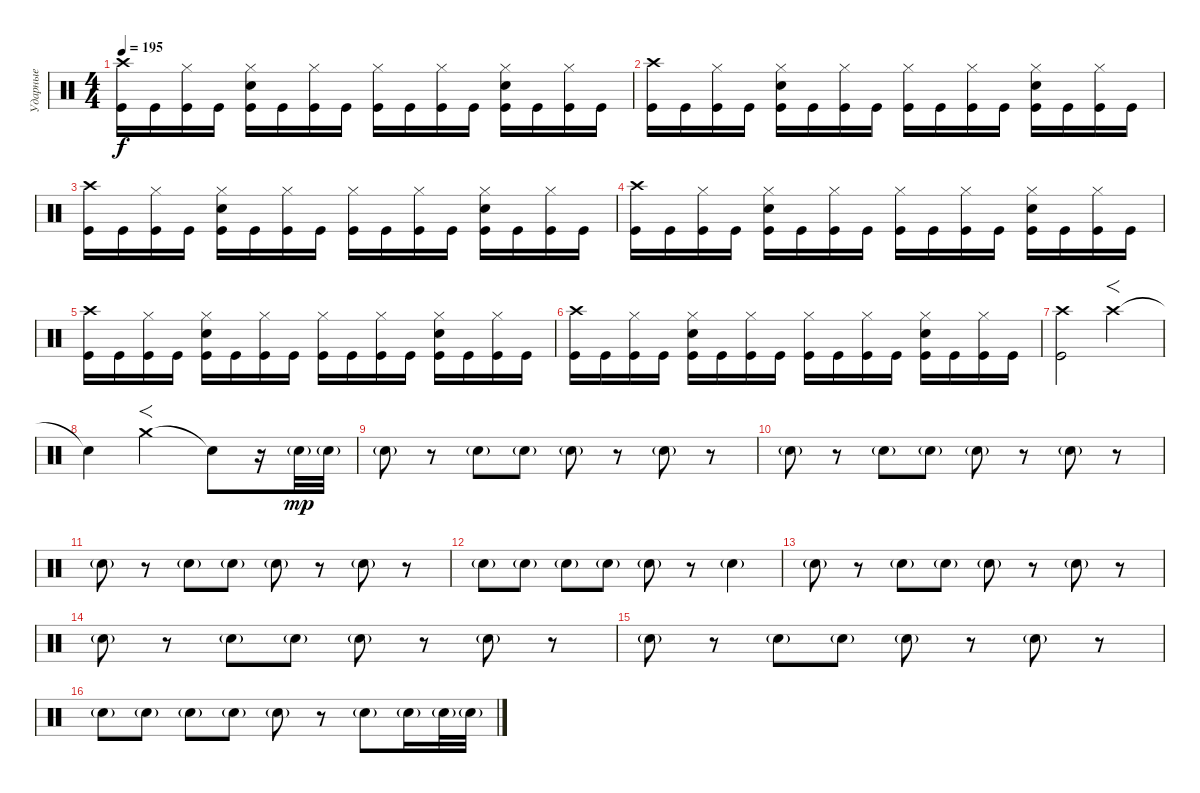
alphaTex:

\track ("Ударные" "Ударные") {instrument percussion}
\staff {score}
\articulation defaults
\ts (4 4)
\tempo 195
\clef neutral
\ks c
("Crash high (hit)" "Kick (hit)").16{dy f} "Kick (hit)".16 ("Hi-Hat (closed)" "Kick (hit)").16 "Kick (hit)".16 ("Hi-Hat (closed)" "Electric Snare (hit)" "Kick (hit)").16 "Kick (hit)".16 ("Hi-Hat (closed)" "Kick (hit)").16 "Kick (hit)".16 ("Hi-Hat (closed)" "Kick (hit)").16 "Kick (hit)".16 ("Hi-Hat (closed)" "Kick (hit)").16 "Kick (hit)".16 ("Hi-Hat (closed)" "Electric Snare (hit)" "Kick (hit)").16 "Kick (hit)".16 ("Hi-Hat (closed)" "Kick (hit)").16 "Kick (hit)".16 |
("Crash high (hit)" "Kick (hit)").16 "Kick (hit)".16 ("Hi-Hat (closed)" "Kick (hit)").16 "Kick (hit)".16 ("Hi-Hat (closed)" "Electric Snare (hit)" "Kick (hit)").16 "Kick (hit)".16 ("Hi-Hat (closed)" "Kick (hit)").16 "Kick (hit)".16 ("Hi-Hat (closed)" "Kick (hit)").16 "Kick (hit)".16 ("Hi-Hat (closed)" "Kick (hit)").16 "Kick (hit)".16 ("Hi-Hat (closed)" "Electric Snare (hit)" "Kick (hit)").16 "Kick (hit)".16 ("Hi-Hat (closed)" "Kick (hit)").16 "Kick (hit)".16 |
("Crash high (hit)" "Kick (hit)").16 "Kick (hit)".16 ("Hi-Hat (closed)" "Kick (hit)").16 "Kick (hit)".16 ("Hi-Hat (closed)" "Electric Snare (hit)" "Kick (hit)").16 "Kick (hit)".16 ("Hi-Hat (closed)" "Kick (hit)").16 "Kick (hit)".16 ("Hi-Hat (closed)" "Kick (hit)").16 "Kick (hit)".16 ("Hi-Hat (closed)" "Kick (hit)").16 "Kick (hit)".16 ("Hi-Hat (closed)" "Electric Snare (hit)" "Kick (hit)").16 "Kick (hit)".16 ("Hi-Hat (closed)" "Kick (hit)").16 "Kick (hit)".16 |
("Crash high (hit)" "Kick (hit)").16 "Kick (hit)".16 ("Hi-Hat (closed)" "Kick (hit)").16 "Kick (hit)".16 ("Hi-Hat (closed)" "Electric Snare (hit)" "Kick (hit)").16 "Kick (hit)".16 ("Hi-Hat (closed)" "Kick (hit)").16 "Kick (hit)".16 ("Hi-Hat (closed)" "Kick (hit)").16 "Kick (hit)".16 ("Hi-Hat (closed)" "Kick (hit)").16 "Kick (hit)".16 ("Hi-Hat (closed)" "Electric Snare (hit)" "Kick (hit)").16 "Kick (hit)".16 ("Hi-Hat (closed)" "Kick (hit)").16 "Kick (hit)".16 |
("Crash high (hit)" "Kick (hit)").16 "Kick (hit)".16 ("Hi-Hat (closed)" "Kick (hit)").16 "Kick (hit)".16 ("Hi-Hat (closed)" "Electric Snare (hit)" "Kick (hit)").16 "Kick (hit)".16 ("Hi-Hat (closed)" "Kick (hit)").16 "Kick (hit)".16 ("Hi-Hat (closed)" "Kick (hit)").16 "Kick (hit)".16 ("Hi-Hat (closed)" "Kick (hit)").16 "Kick (hit)".16 ("Hi-Hat (closed)" "Electric Snare (hit)" "Kick (hit)").16 "Kick (hit)".16 ("Hi-Hat (closed)" "Kick (hit)").16 "Kick (hit)".16 |
("Crash high (hit)" "Kick (hit)").16 "Kick (hit)".16 ("Hi-Hat (closed)" "Kick (hit)").16 "Kick (hit)".16 ("Hi-Hat (closed)" "Electric Snare (hit)" "Kick (hit)").16 "Kick (hit)".16 ("Hi-Hat (closed)" "Kick (hit)").16 "Kick (hit)".16 ("Hi-Hat (closed)" "Kick (hit)").16 "Kick (hit)".16 ("Hi-Hat (closed)" "Kick (hit)").16 "Kick (hit)".16 ("Hi-Hat (closed)" "Electric Snare (hit)" "Kick (hit)").16 "Kick (hit)".16 ("Hi-Hat (closed)" "Kick (hit)").16 "Kick (hit)".16 |
("Crash high (hit)" "Kick (hit)").2 "Crash high (hit)".2{f} |
"Snare (hit)"{t}.4 "Crash medium (hit)".2{f} "Snare (hit)"{t}.8 r.16 "Electric Snare (hit)"{g}.32{dy mp} "Electric Snare (hit)"{g}.32 |
"Electric Snare (hit)"{g}.8 r.8 "Electric Snare (hit)"{g}.8 "Electric Snare (hit)"{g}.8 "Electric Snare (hit)"{g}.8 r.8 "Electric Snare (hit)"{g}.8 r.8 |
"Electric Snare (hit)"{g}.8 r.8 "Electric Snare (hit)"{g}.8 "Electric Snare (hit)"{g}.8 "Electric Snare (hit)"{g}.8 r.8 "Electric Snare (hit)"{g}.8 r.8 |
"Electric Snare (hit)"{g}.8 r.8 "Electric Snare (hit)"{g}.8 "Electric Snare (hit)"{g}.8 "Electric Snare (hit)"{g}.8 r.8 "Electric Snare (hit)"{g}.8 r.8 |
"Electric Snare (hit)"{g}.8 "Electric Snare (hit)"{g}.8 "Electric Snare (hit)"{g}.8 "Electric Snare (hit)"{g}.8 "Electric Snare (hit)"{g}.8 r.8 "Electric Snare (hit)"{g}.4 |
"Electric Snare (hit)"{g}.8 r.8 "Electric Snare (hit)"{g}.8 "Electric Snare (hit)"{g}.8 "Electric Snare (hit)"{g}.8 r.8 "Electric Snare (hit)"{g}.8 r.8 |
"Electric Snare (hit)"{g}.8 r.8 "Electric Snare (hit)"{g}.8 "Electric Snare (hit)"{g}.8 "Electric Snare (hit)"{g}.8 r.8 "Electric Snare (hit)"{g}.8 r.8 |
"Electric Snare (hit)"{g}.8 r.8 "Electric Snare (hit)"{g}.8 "Electric Snare (hit)"{g}.8 "Electric Snare (hit)"{g}.8 r.8 "Electric Snare (hit)"{g}.8 r.8 |
"Electric Snare (hit)"{g}.8 "Electric Snare (hit)"{g}.8 "Electric Snare (hit)"{g}.8 "Electric Snare (hit)"{g}.8 "Electric Snare (hit)"{g}.8 r.8 "Electric Snare (hit)"{g}.8 "Electric Snare (hit)"{g}.16 "Electric Snare (hit)"{g}.32 "Electric Snare (hit)"{g}.32
